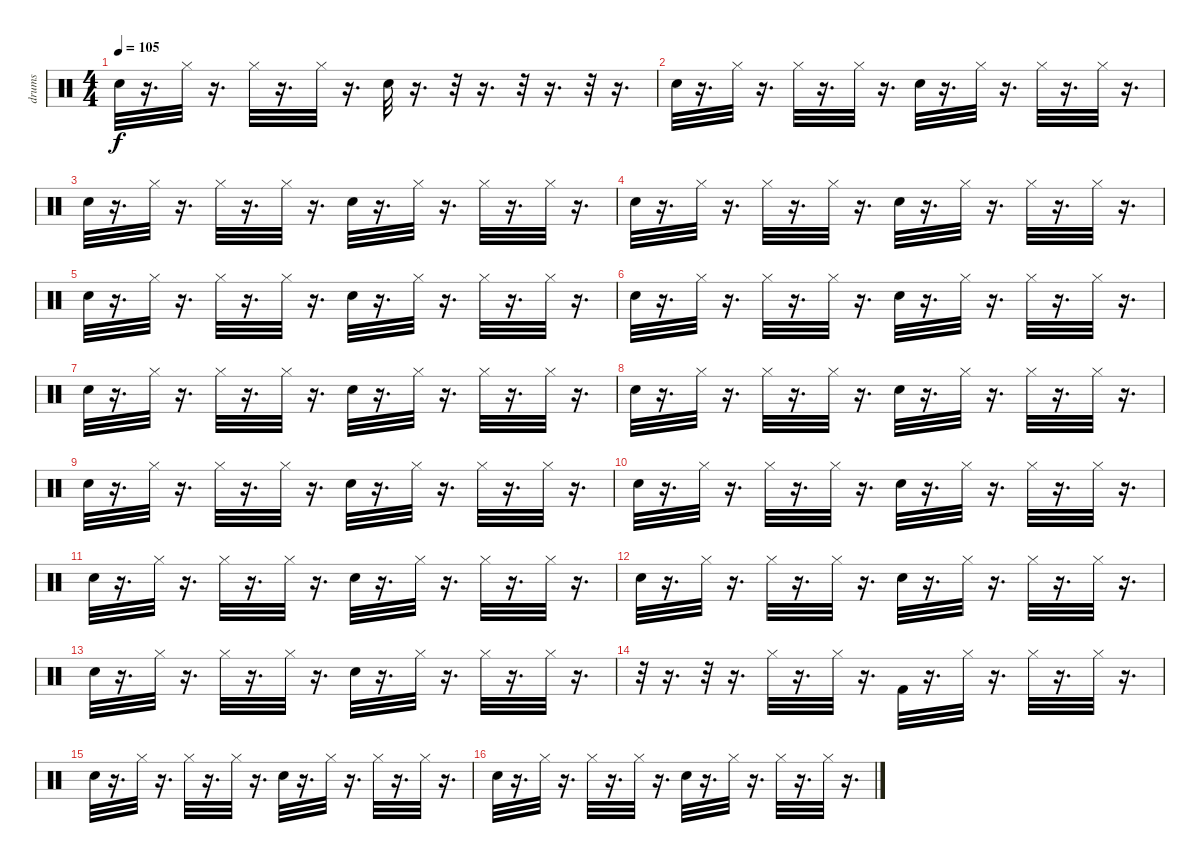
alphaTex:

\track ("drums" "drums") {instrument percussion}
\staff {score}
\articulation defaults
\ts (4 4)
\tempo 105
\clef neutral
\ks c "Snare (hit) 2".32{dy f}
r.16{d} "Hi-Hat (closed)".32 r.16{d} "Hi-Hat (closed)".32 r.16{d} "Hi-Hat (closed)".32 r.16{d} "Snare (hit) 2".32 r.16{d} r.32 r.16{d} r.32 r.16{d} r.32 r.16{d} |
"Snare (hit) 2".32 r.16{d} "Hi-Hat (closed)".32 r.16{d} "Hi-Hat (closed)".32 r.16{d} "Hi-Hat (closed)".32 r.16{d} "Snare (hit) 2".32 r.16{d} "Hi-Hat (closed)".32 r.16{d} "Hi-Hat (closed)".32 r.16{d} "Hi-Hat (closed)".32 r.16{d} |
"Snare (hit) 2".32 r.16{d} "Hi-Hat (closed)".32 r.16{d} "Hi-Hat (closed)".32 r.16{d} "Hi-Hat (closed)".32 r.16{d} "Snare (hit) 2".32 r.16{d} "Hi-Hat (closed)".32 r.16{d} "Hi-Hat (closed)".32 r.16{d} "Hi-Hat (closed)".32 r.16{d} |
"Snare (hit) 2".32 r.16{d} "Hi-Hat (closed)".32 r.16{d} "Hi-Hat (closed)".32 r.16{d} "Hi-Hat (closed)".32 r.16{d} "Snare (hit) 2".32 r.16{d} "Hi-Hat (closed)".32 r.16{d} "Hi-Hat (closed)".32 r.16{d} "Hi-Hat (closed)".32 r.16{d} |
"Snare (hit) 2".32 r.16{d} "Hi-Hat (closed)".32 r.16{d} "Hi-Hat (closed)".32 r.16{d} "Hi-Hat (closed)".32 r.16{d} "Snare (hit) 2".32 r.16{d} "Hi-Hat (closed)".32 r.16{d} "Hi-Hat (closed)".32 r.16{d} "Hi-Hat (closed)".32 r.16{d} |
"Snare (hit) 2".32 r.16{d} "Hi-Hat (closed)".32 r.16{d} "Hi-Hat (closed)".32 r.16{d} "Hi-Hat (closed)".32 r.16{d} "Snare (hit) 2".32 r.16{d} "Hi-Hat (closed)".32 r.16{d} "Hi-Hat (closed)".32 r.16{d} "Hi-Hat (closed)".32 r.16{d} |
"Snare (hit) 2".32 r.16{d} "Hi-Hat (closed)".32 r.16{d} "Hi-Hat (closed)".32 r.16{d} "Hi-Hat (closed)".32 r.16{d} "Snare (hit) 2".32 r.16{d} "Hi-Hat (closed)".32 r.16{d} "Hi-Hat (closed)".32 r.16{d} "Hi-Hat (closed)".32 r.16{d} |
"Snare (hit) 2".32 r.16{d} "Hi-Hat (closed)".32 r.16{d} "Hi-Hat (closed)".32 r.16{d} "Hi-Hat (closed)".32 r.16{d} "Snare (hit) 2".32 r.16{d} "Hi-Hat (closed)".32 r.16{d} "Hi-Hat (closed)".32 r.16{d} "Hi-Hat (closed)".32 r.16{d} |
"Snare (hit) 2".32 r.16{d} "Hi-Hat (closed)".32 r.16{d} "Hi-Hat (closed)".32 r.16{d} "Hi-Hat (closed)".32 r.16{d} "Snare (hit) 2".32 r.16{d} "Hi-Hat (closed)".32 r.16{d} "Hi-Hat (closed)".32 r.16{d} "Hi-Hat (closed)".32 r.16{d} |
"Snare (hit) 2".32 r.16{d} "Hi-Hat (closed)".32 r.16{d} "Hi-Hat (closed)".32 r.16{d} "Hi-Hat (closed)".32 r.16{d} "Snare (hit) 2".32 r.16{d} "Hi-Hat (closed)".32 r.16{d} "Hi-Hat (closed)".32 r.16{d} "Hi-Hat (closed)".32 r.16{d} |
"Snare (hit) 2".32 r.16{d} "Hi-Hat (closed)".32 r.16{d} "Hi-Hat (closed)".32 r.16{d} "Hi-Hat (closed)".32 r.16{d} "Snare (hit) 2".32 r.16{d} "Hi-Hat (closed)".32 r.16{d} "Hi-Hat (closed)".32 r.16{d} "Hi-Hat (closed)".32 r.16{d} |
"Snare (hit) 2".32 r.16{d} "Hi-Hat (closed)".32 r.16{d} "Hi-Hat (closed)".32 r.16{d} "Hi-Hat (closed)".32 r.16{d} "Snare (hit) 2".32 r.16{d} "Hi-Hat (closed)".32 r.16{d} "Hi-Hat (closed)".32 r.16{d} "Hi-Hat (closed)".32 r.16{d} |
"Snare (hit) 2".32 r.16{d} "Hi-Hat (closed)".32 r.16{d} "Hi-Hat (closed)".32 r.16{d} "Hi-Hat (closed)".32 r.16{d} "Snare (hit) 2".32 r.16{d} "Hi-Hat (closed)".32 r.16{d} "Hi-Hat (closed)".32 r.16{d} "Hi-Hat (closed)".32 r.16{d} |
r.32 r.16{d} r.32 r.16{d} "Hi-Hat (closed)".32 r.16{d} "Hi-Hat (closed)".32 r.16{d} "Kick (hit) 2".32 r.16{d} "Hi-Hat (closed)".32 r.16{d} "Hi-Hat (closed)".32 r.16{d} "Hi-Hat (closed)".32 r.16{d} |
"Snare (hit) 2".32 r.16{d} "Hi-Hat (closed)".32 r.16{d} "Hi-Hat (closed)".32 r.16{d} "Hi-Hat (closed)".32 r.16{d} "Snare (hit) 2".32 r.16{d} "Hi-Hat (closed)".32 r.16{d} "Hi-Hat (closed)".32 r.16{d} "Hi-Hat (closed)".32 r.16{d} |
"Snare (hit) 2".32 r.16{d} "Hi-Hat (closed)".32 r.16{d} "Hi-Hat (closed)".32 r.16{d} "Hi-Hat (closed)".32 r.16{d} "Snare (hit) 2".32 r.16{d} "Hi-Hat (closed)".32 r.16{d} "Hi-Hat (closed)".32 r.16{d} "Hi-Hat (closed)".32 r.16{d}
